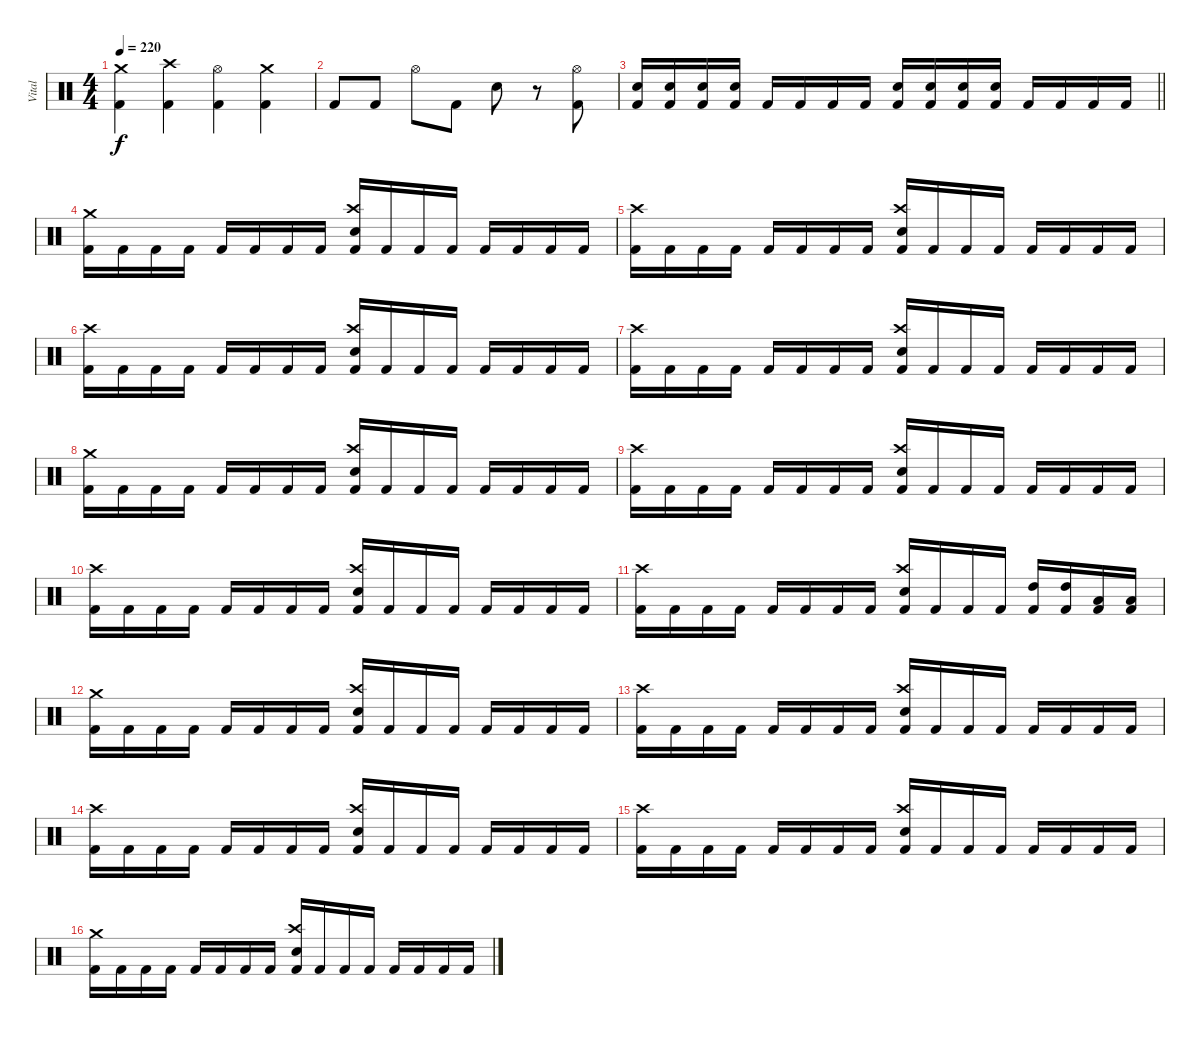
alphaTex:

\track ("Vital" "Vital") {instrument percussion}
\staff {score}
\articulation defaults
\ts (4 4)
\tempo 220
\clef neutral
\ks c
("Crash medium (hit)" "Kick (hit) 2").4{dy f} ("Crash high (hit)" "Kick (hit) 2").4 ("Hi-Hat (open)" "Kick (hit) 2").4 ("Crash medium (hit)" "Kick (hit) 2").4 |
"Kick (hit) 2".8 "Kick (hit) 2".8 "Hi-Hat (open)".8 "Kick (hit) 2".8 "Snare (hit) 2".8 r.8 ("Hi-Hat (open)" "Kick (hit) 2").8 |
\barLineRight lightlight
("Snare (hit) 2" "Kick (hit) 2").16 ("Snare (hit) 2" "Kick (hit) 2").16 ("Snare (hit) 2" "Kick (hit) 2").16 ("Snare (hit) 2" "Kick (hit) 2").16 "Kick (hit) 2".16 "Kick (hit) 2".16 "Kick (hit) 2".16 "Kick (hit) 2".16 ("Snare (hit) 2" "Kick (hit) 2").16 ("Snare (hit) 2" "Kick (hit) 2").16 ("Snare (hit) 2" "Kick (hit) 2").16 ("Snare (hit) 2" "Kick (hit) 2").16 "Kick (hit) 2".16 "Kick (hit) 2".16 "Kick (hit) 2".16 "Kick (hit) 2".16 |
("Crash medium (hit)" "Kick (hit) 2").16 "Kick (hit) 2".16 "Kick (hit) 2".16 "Kick (hit) 2".16 "Kick (hit) 2".16 "Kick (hit) 2".16 "Kick (hit) 2".16 "Kick (hit) 2".16 ("Crash high (hit)" "Snare (hit) 2" "Kick (hit) 2").16 "Kick (hit) 2".16 "Kick (hit) 2".16 "Kick (hit) 2".16 "Kick (hit) 2".16 "Kick (hit) 2".16 "Kick (hit) 2".16 "Kick (hit) 2".16 |
("Crash high (hit)" "Kick (hit) 2").16 "Kick (hit) 2".16 "Kick (hit) 2".16 "Kick (hit) 2".16 "Kick (hit) 2".16 "Kick (hit) 2".16 "Kick (hit) 2".16 "Kick (hit) 2".16 ("Crash high (hit)" "Snare (hit) 2" "Kick (hit) 2").16 "Kick (hit) 2".16 "Kick (hit) 2".16 "Kick (hit) 2".16 "Kick (hit) 2".16 "Kick (hit) 2".16 "Kick (hit) 2".16 "Kick (hit) 2".16 |
("Crash high (hit)" "Kick (hit) 2").16 "Kick (hit) 2".16 "Kick (hit) 2".16 "Kick (hit) 2".16 "Kick (hit) 2".16 "Kick (hit) 2".16 "Kick (hit) 2".16 "Kick (hit) 2".16 ("Crash high (hit)" "Snare (hit) 2" "Kick (hit) 2").16 "Kick (hit) 2".16 "Kick (hit) 2".16 "Kick (hit) 2".16 "Kick (hit) 2".16 "Kick (hit) 2".16 "Kick (hit) 2".16 "Kick (hit) 2".16 |
("Crash high (hit)" "Kick (hit) 2").16 "Kick (hit) 2".16 "Kick (hit) 2".16 "Kick (hit) 2".16 "Kick (hit) 2".16 "Kick (hit) 2".16 "Kick (hit) 2".16 "Kick (hit) 2".16 ("Crash high (hit)" "Snare (hit) 2" "Kick (hit) 2").16 "Kick (hit) 2".16 "Kick (hit) 2".16 "Kick (hit) 2".16 "Kick (hit) 2".16 "Kick (hit) 2".16 "Kick (hit) 2".16 "Kick (hit) 2".16 |
("Crash medium (hit)" "Kick (hit) 2").16 "Kick (hit) 2".16 "Kick (hit) 2".16 "Kick (hit) 2".16 "Kick (hit) 2".16 "Kick (hit) 2".16 "Kick (hit) 2".16 "Kick (hit) 2".16 ("Crash high (hit)" "Snare (hit) 2" "Kick (hit) 2").16 "Kick (hit) 2".16 "Kick (hit) 2".16 "Kick (hit) 2".16 "Kick (hit) 2".16 "Kick (hit) 2".16 "Kick (hit) 2".16 "Kick (hit) 2".16 |
("Crash high (hit)" "Kick (hit) 2").16 "Kick (hit) 2".16 "Kick (hit) 2".16 "Kick (hit) 2".16 "Kick (hit) 2".16 "Kick (hit) 2".16 "Kick (hit) 2".16 "Kick (hit) 2".16 ("Crash high (hit)" "Snare (hit) 2" "Kick (hit) 2").16 "Kick (hit) 2".16 "Kick (hit) 2".16 "Kick (hit) 2".16 "Kick (hit) 2".16 "Kick (hit) 2".16 "Kick (hit) 2".16 "Kick (hit) 2".16 |
("Crash high (hit)" "Kick (hit) 2").16 "Kick (hit) 2".16 "Kick (hit) 2".16 "Kick (hit) 2".16 "Kick (hit) 2".16 "Kick (hit) 2".16 "Kick (hit) 2".16 "Kick (hit) 2".16 ("Crash high (hit)" "Snare (hit) 2" "Kick (hit) 2").16 "Kick (hit) 2".16 "Kick (hit) 2".16 "Kick (hit) 2".16 "Kick (hit) 2".16 "Kick (hit) 2".16 "Kick (hit) 2".16 "Kick (hit) 2".16 |
("Crash high (hit)" "Kick (hit) 2").16 "Kick (hit) 2".16 "Kick (hit) 2".16 "Kick (hit) 2".16 "Kick (hit) 2".16 "Kick (hit) 2".16 "Kick (hit) 2".16 "Kick (hit) 2".16 ("Crash high (hit)" "Snare (hit) 2" "Kick (hit) 2").16 "Kick (hit) 2".16 "Kick (hit) 2".16 "Kick (hit) 2".16 ("High Tom (hit)" "Kick (hit) 2").16 ("High Tom (hit)" "Kick (hit) 2").16 ("Low Tom (hit)" "Kick (hit) 2").16 ("Low Tom (hit)" "Kick (hit) 2").16 |
("Crash medium (hit)" "Kick (hit) 2").16 "Kick (hit) 2".16 "Kick (hit) 2".16 "Kick (hit) 2".16 "Kick (hit) 2".16 "Kick (hit) 2".16 "Kick (hit) 2".16 "Kick (hit) 2".16 ("Crash high (hit)" "Snare (hit) 2" "Kick (hit) 2").16 "Kick (hit) 2".16 "Kick (hit) 2".16 "Kick (hit) 2".16 "Kick (hit) 2".16 "Kick (hit) 2".16 "Kick (hit) 2".16 "Kick (hit) 2".16 |
("Crash high (hit)" "Kick (hit) 2").16 "Kick (hit) 2".16 "Kick (hit) 2".16 "Kick (hit) 2".16 "Kick (hit) 2".16 "Kick (hit) 2".16 "Kick (hit) 2".16 "Kick (hit) 2".16 ("Crash high (hit)" "Snare (hit) 2" "Kick (hit) 2").16 "Kick (hit) 2".16 "Kick (hit) 2".16 "Kick (hit) 2".16 "Kick (hit) 2".16 "Kick (hit) 2".16 "Kick (hit) 2".16 "Kick (hit) 2".16 |
("Crash high (hit)" "Kick (hit) 2").16 "Kick (hit) 2".16 "Kick (hit) 2".16 "Kick (hit) 2".16 "Kick (hit) 2".16 "Kick (hit) 2".16 "Kick (hit) 2".16 "Kick (hit) 2".16 ("Crash high (hit)" "Snare (hit) 2" "Kick (hit) 2").16 "Kick (hit) 2".16 "Kick (hit) 2".16 "Kick (hit) 2".16 "Kick (hit) 2".16 "Kick (hit) 2".16 "Kick (hit) 2".16 "Kick (hit) 2".16 |
("Crash high (hit)" "Kick (hit) 2").16 "Kick (hit) 2".16 "Kick (hit) 2".16 "Kick (hit) 2".16 "Kick (hit) 2".16 "Kick (hit) 2".16 "Kick (hit) 2".16 "Kick (hit) 2".16 ("Crash high (hit)" "Snare (hit) 2" "Kick (hit) 2").16 "Kick (hit) 2".16 "Kick (hit) 2".16 "Kick (hit) 2".16 "Kick (hit) 2".16 "Kick (hit) 2".16 "Kick (hit) 2".16 "Kick (hit) 2".16 |
("Crash medium (hit)" "Kick (hit) 2").16 "Kick (hit) 2".16 "Kick (hit) 2".16 "Kick (hit) 2".16 "Kick (hit) 2".16 "Kick (hit) 2".16 "Kick (hit) 2".16 "Kick (hit) 2".16 ("Crash high (hit)" "Snare (hit) 2" "Kick (hit) 2").16 "Kick (hit) 2".16 "Kick (hit) 2".16 "Kick (hit) 2".16 "Kick (hit) 2".16 "Kick (hit) 2".16 "Kick (hit) 2".16 "Kick (hit) 2".16
